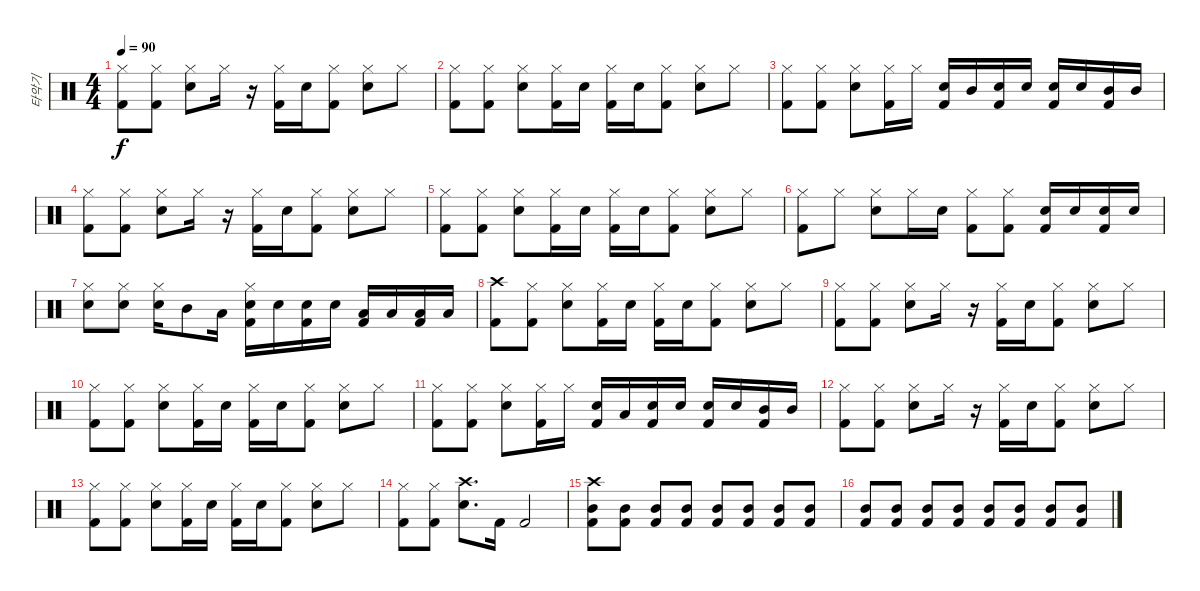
\track ("타악기" "타악기") {instrument percussion}
\staff {score}
\articulation defaults
\ts (4 4)
\tempo 90
\clef neutral
\ks c
("Hi-Hat (closed)" "Kick (hit) 2").8{dy f} ("Hi-Hat (closed)" "Kick (hit) 2").8 ("Hi-Hat (closed)" "Electric Snare (hit)").8 "Hi-Hat (closed)".16 r.16 ("Hi-Hat (closed)" "Kick (hit) 2").16 "Electric Snare (hit)".16 ("Hi-Hat (closed)" "Kick (hit) 2").8 ("Hi-Hat (closed)" "Electric Snare (hit)").8 "Hi-Hat (closed)".8 |
("Hi-Hat (closed)" "Kick (hit) 2").8 ("Hi-Hat (closed)" "Kick (hit) 2").8 ("Hi-Hat (closed)" "Electric Snare (hit)").8 ("Hi-Hat (closed)" "Kick (hit) 2").16 "Electric Snare (hit)".16 ("Hi-Hat (closed)" "Kick (hit) 2").16 "Electric Snare (hit)".16 ("Hi-Hat (closed)" "Kick (hit) 2").8 ("Hi-Hat (closed)" "Electric Snare (hit)").8 "Hi-Hat (closed)".8 |
("Kick (hit) 2" "Hi-Hat (closed)").8 ("Hi-Hat (closed)" "Kick (hit) 2").8 ("Hi-Hat (closed)" "Electric Snare (hit)").8 ("Hi-Hat (closed)" "Kick (hit) 2").16 "Hi-Hat (closed)".16 ("Electric Snare (hit)" "Kick (hit) 2").16 "Mid Tom (hit)".16 ("Electric Snare (hit)" "Kick (hit) 2").16 "Electric Snare (hit)".16 ("Electric Snare (hit)" "Kick (hit) 2").16 "Electric Snare (hit)".16 ("Mid Tom (hit)" "Kick (hit) 2").16 "Mid Tom (hit)".16 |
("Hi-Hat (closed)" "Kick (hit) 2").8 ("Hi-Hat (closed)" "Kick (hit) 2").8 ("Hi-Hat (closed)" "Electric Snare (hit)").8 "Hi-Hat (closed)".16 r.16 ("Hi-Hat (closed)" "Kick (hit) 2").16 "Electric Snare (hit)".16 ("Hi-Hat (closed)" "Kick (hit) 2").8 ("Hi-Hat (closed)" "Electric Snare (hit)").8 "Hi-Hat (closed)".8 |
("Hi-Hat (closed)" "Kick (hit) 2").8 ("Hi-Hat (closed)" "Kick (hit) 2").8 ("Hi-Hat (closed)" "Electric Snare (hit)").8 ("Hi-Hat (closed)" "Kick (hit) 2").16 "Electric Snare (hit)".16 ("Hi-Hat (closed)" "Kick (hit) 2").16 "Electric Snare (hit)".16 ("Hi-Hat (closed)" "Kick (hit) 2").8 ("Hi-Hat (closed)" "Electric Snare (hit)").8 "Hi-Hat (closed)".8 |
("Kick (hit) 2" "Hi-Hat (closed)").8 "Hi-Hat (closed)".8 ("Electric Snare (hit)" "Hi-Hat (closed)").8 "Hi-Hat (closed)".16 "Electric Snare (hit)".16 ("Kick (hit) 2" "Hi-Hat (closed)").8 ("Kick (hit) 2" "Hi-Hat (closed)").8 ("Electric Snare (hit)" "Kick (hit) 2").16 "Electric Snare (hit)".16 ("Electric Snare (hit)" "Kick (hit) 2").16 "Electric Snare (hit)".16 |
("Electric Snare (hit)" "Hi-Hat (closed)").8 ("Electric Snare (hit)" "Hi-Hat (closed)").8 ("Electric Snare (hit)" "Hi-Hat (closed)").16 "Mid Tom (hit)".8 "Low Floor Tom (hit)".16 ("Electric Snare (hit)" "Hi-Hat (closed)" "Kick (hit) 2").16 "Electric Snare (hit)".16 ("Electric Snare (hit)" "Kick (hit) 2").16 "Electric Snare (hit)".16 ("Low Floor Tom (hit)" "Kick (hit) 2").16 "Low Floor Tom (hit)".16 ("Low Floor Tom (hit)" "Kick (hit) 2").16 "Low Floor Tom (hit)".16 |
("Crash high (hit)" "Kick (hit) 2").8 ("Hi-Hat (closed)" "Kick (hit) 2").8 ("Hi-Hat (closed)" "Electric Snare (hit)").8 ("Hi-Hat (closed)" "Kick (hit) 2").16 "Electric Snare (hit)".16 ("Hi-Hat (closed)" "Kick (hit) 2").16 "Electric Snare (hit)".16 ("Hi-Hat (closed)" "Kick (hit) 2").8 ("Hi-Hat (closed)" "Electric Snare (hit)").8 "Hi-Hat (closed)".8 |
("Hi-Hat (closed)" "Kick (hit) 2").8 ("Hi-Hat (closed)" "Kick (hit) 2").8 ("Hi-Hat (closed)" "Electric Snare (hit)").8 "Hi-Hat (closed)".16 r.16 ("Hi-Hat (closed)" "Kick (hit) 2").16 "Electric Snare (hit)".16 ("Hi-Hat (closed)" "Kick (hit) 2").8 ("Hi-Hat (closed)" "Electric Snare (hit)").8 "Hi-Hat (closed)".8 |
("Hi-Hat (closed)" "Kick (hit) 2").8 ("Hi-Hat (closed)" "Kick (hit) 2").8 ("Hi-Hat (closed)" "Electric Snare (hit)").8 ("Hi-Hat (closed)" "Kick (hit) 2").16 "Electric Snare (hit)".16 ("Hi-Hat (closed)" "Kick (hit) 2").16 "Electric Snare (hit)".16 ("Hi-Hat (closed)" "Kick (hit) 2").8 ("Hi-Hat (closed)" "Electric Snare (hit)").8 "Hi-Hat (closed)".8 |
("Kick (hit) 2" "Hi-Hat (closed)").8 ("Hi-Hat (closed)" "Kick (hit) 2").8 ("Hi-Hat (closed)" "Electric Snare (hit)").8 ("Hi-Hat (closed)" "Kick (hit) 2").16 "Hi-Hat (closed)".16 ("Electric Snare (hit)" "Kick (hit) 2").16 "Low Floor Tom (hit)".16 ("Electric Snare (hit)" "Kick (hit) 2").16 "Electric Snare (hit)".16 ("Electric Snare (hit)" "Kick (hit) 2").16 "Electric Snare (hit)".16 ("Mid Tom (hit)" "Kick (hit) 2").16 "Mid Tom (hit)".16 |
("Hi-Hat (closed)" "Kick (hit) 2").8 ("Hi-Hat (closed)" "Kick (hit) 2").8 ("Hi-Hat (closed)" "Electric Snare (hit)").8 "Hi-Hat (closed)".16 r.16 ("Hi-Hat (closed)" "Kick (hit) 2").16 "Electric Snare (hit)".16 ("Hi-Hat (closed)" "Kick (hit) 2").8 ("Hi-Hat (closed)" "Electric Snare (hit)").8 "Hi-Hat (closed)".8 |
("Hi-Hat (closed)" "Kick (hit) 2").8 ("Hi-Hat (closed)" "Kick (hit) 2").8 ("Hi-Hat (closed)" "Electric Snare (hit)").8 ("Hi-Hat (closed)" "Kick (hit) 2").16 "Electric Snare (hit)".16 ("Hi-Hat (closed)" "Kick (hit) 2").16 "Electric Snare (hit)".16 ("Hi-Hat (closed)" "Kick (hit) 2").8 ("Hi-Hat (closed)" "Electric Snare (hit)").8 "Hi-Hat (closed)".8 |
("Hi-Hat (closed)" "Kick (hit) 2").8 ("Hi-Hat (closed)" "Kick (hit) 2").8 ("Electric Snare (hit)" "Crash high (hit)").8{d} "Kick (hit) 2".16 "Kick (hit) 2".2 |
("Crash high (hit)" "Kick (hit) 2" "Mid Tom (hit)").8 ("Kick (hit) 2" "Mid Tom (hit)").8 ("Kick (hit) 2" "Mid Tom (hit)").8 ("Kick (hit) 2" "Mid Tom (hit)").8 ("Kick (hit) 2" "Mid Tom (hit)").8 ("Kick (hit) 2" "Mid Tom (hit)").8 ("Kick (hit) 2" "Mid Tom (hit)").8 ("Kick (hit) 2" "Mid Tom (hit)").8 |
("Kick (hit) 2" "Mid Tom (hit)").8 ("Kick (hit) 2" "Mid Tom (hit)").8 ("Kick (hit) 2" "Mid Tom (hit)").8 ("Kick (hit) 2" "Mid Tom (hit)").8 ("Kick (hit) 2" "Mid Tom (hit)").8 ("Kick (hit) 2" "Mid Tom (hit)").8 ("Kick (hit) 2" "Mid Tom (hit)").8 ("Kick (hit) 2" "Mid Tom (hit)").8
